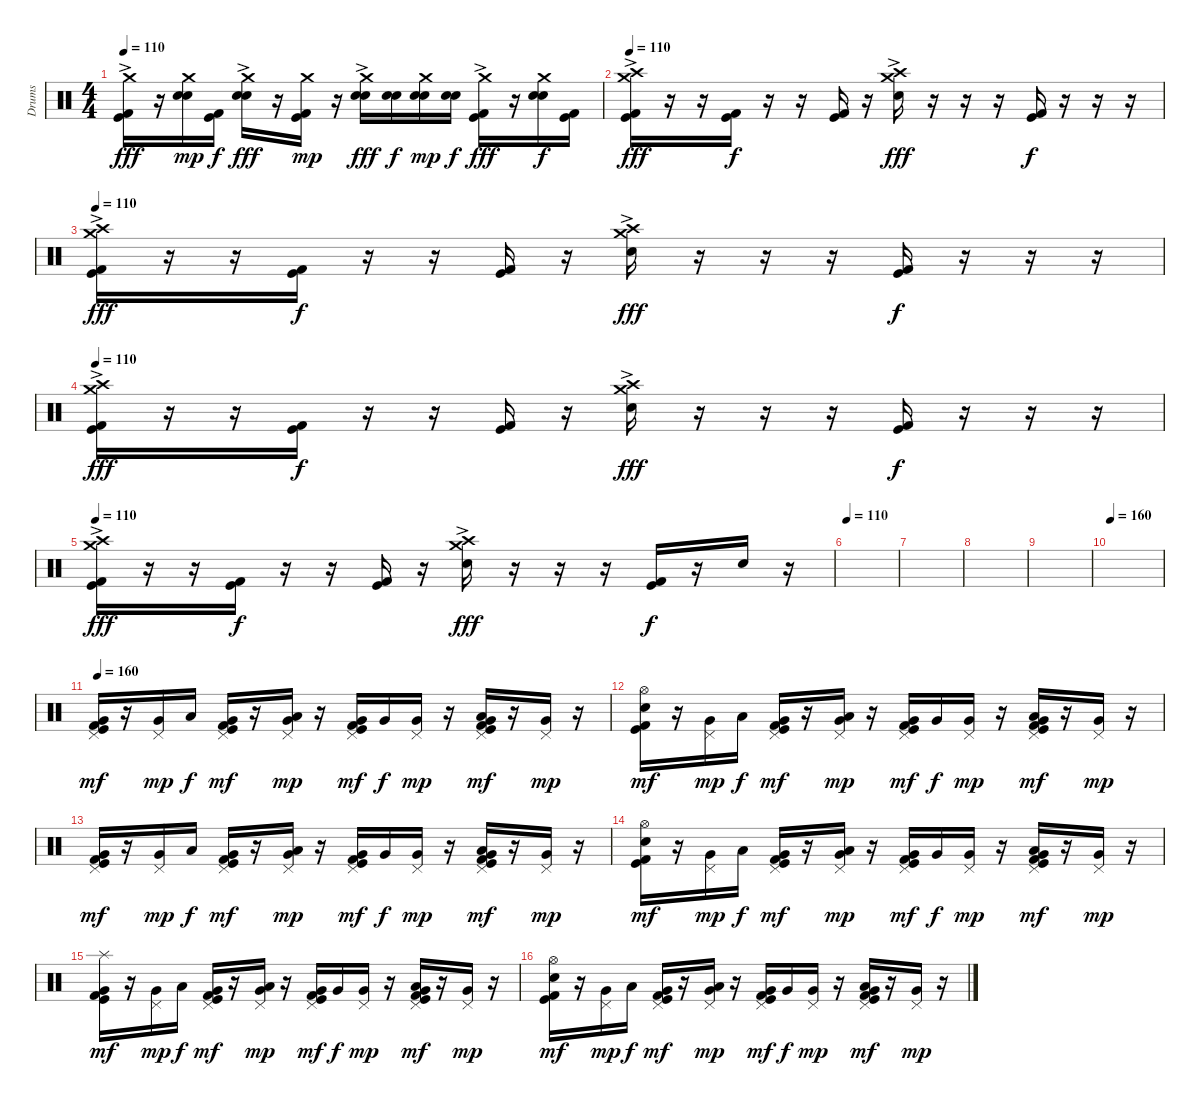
\track ("Drums" "Drums") {instrument percussion}
\staff {score}
\articulation defaults
\ts (4 4)
\tempo 110
\clef neutral
\ks c
("Crash medium (hit)"{ac} "Kick (hit)" "Kick (hit) 2").16{dy fff} r.16 ("Crash medium (hit)" "Electric Snare (hit)" "Electric Snare (hit)").16{dy mp} ("Kick (hit)" "Kick (hit) 2").16{dy f} ("Crash medium (hit)"{ac} "Electric Snare (hit)" "Electric Snare (hit)").16{dy fff} r.16 ("Crash medium (hit)" "Kick (hit)" "Kick (hit) 2").16{dy mp} r.16 ("Crash medium (hit)"{ac} "Electric Snare (hit)" "Electric Snare (hit)").16{dy fff} ("Electric Snare (hit)" "Electric Snare (hit)").16{dy f} ("Crash medium (hit)" "Electric Snare (hit)" "Electric Snare (hit)").16{dy mp} ("Electric Snare (hit)" "Electric Snare (hit)").16{dy f} ("Crash medium (hit)"{ac} "Kick (hit)" "Kick (hit) 2").16{dy fff} r.16 ("Crash medium (hit)" "Electric Snare (hit)" "Electric Snare (hit)").16{dy f} ("Kick (hit)" "Kick (hit) 2").16 |
\tempo 110
("Crash high (hit)" "Crash medium (hit)"{ac} "Kick (hit)" "Kick (hit) 2").16{dy fff} r.16 r.16 ("Kick (hit)" "Kick (hit) 2").16{dy f} r.16 r.16 ("Kick (hit)" "Kick (hit) 2").16 r.16 ("Crash high (hit)" "Crash medium (hit)"{ac} "Electric Snare (hit)").16{dy fff} r.16 r.16 r.16 ("Kick (hit)" "Kick (hit) 2").16{dy f} r.16 r.16 r.16 |
\tempo 110
("Crash high (hit)" "Crash medium (hit)"{ac} "Kick (hit)" "Kick (hit) 2").16{dy fff} r.16 r.16 ("Kick (hit)" "Kick (hit) 2").16{dy f} r.16 r.16 ("Kick (hit)" "Kick (hit) 2").16 r.16 ("Crash high (hit)" "Crash medium (hit)"{ac} "Electric Snare (hit)").16{dy fff} r.16 r.16 r.16 ("Kick (hit)" "Kick (hit) 2").16{dy f} r.16 r.16 r.16 |
\tempo 110
("Crash high (hit)" "Crash medium (hit)"{ac} "Kick (hit)" "Kick (hit) 2").16{dy fff} r.16 r.16 ("Kick (hit)" "Kick (hit) 2").16{dy f} r.16 r.16 ("Kick (hit)" "Kick (hit) 2").16 r.16 ("Crash high (hit)" "Crash medium (hit)"{ac} "Electric Snare (hit)").16{dy fff} r.16 r.16 r.16 ("Kick (hit)" "Kick (hit) 2").16{dy f} r.16 r.16 r.16 |
\tempo 110
("Crash high (hit)" "Crash medium (hit)"{ac} "Kick (hit)" "Kick (hit) 2").16{dy fff} r.16 r.16 ("Kick (hit)" "Kick (hit) 2").16{dy f} r.16 r.16 ("Kick (hit)" "Kick (hit) 2").16 r.16 ("Crash high (hit)" "Crash medium (hit)"{ac} "Electric Snare (hit)").16{dy fff} r.16 r.16 r.16 ("Kick (hit)" "Kick (hit) 2").16{dy f} r.16 "Electric Snare (hit)".16 r.16 |
\tempo 110
|
|
|
|
\tempo 160
|
\tempo 160
("Pedal Hi-Hat (hit)" "Very Low Tom (hit)" "Kick (hit)" "Kick (hit) 2").16{dy mf} r.16 ("Pedal Hi-Hat (hit)" "Very Low Tom (hit)").16{dy mp} "Low Tom (hit)".16{dy f} ("Pedal Hi-Hat (hit)" "Very Low Tom (hit)" "Kick (hit)" "Kick (hit) 2").16{dy mf} r.16 ("Pedal Hi-Hat (hit)" "Low Tom (hit)" "Very Low Tom (hit)").16{dy mp} r.16 ("Pedal Hi-Hat (hit)" "Very Low Tom (hit)" "Kick (hit)" "Kick (hit) 2").16{dy mf} "Very Low Tom (hit)".16{dy f} ("Pedal Hi-Hat (hit)" "Very Low Tom (hit)").16{dy mp} r.16 ("Pedal Hi-Hat (hit)" "Low Tom (hit)" "Very Low Tom (hit)" "Kick (hit)" "Kick (hit) 2").16{dy mf} r.16 ("Pedal Hi-Hat (hit)" "Very Low Tom (hit)").16{dy mp} r.16 |
("Hi-Hat (open)" "Electric Snare (hit)" "Kick (hit)" "Kick (hit) 2").16{dy mf} r.16 ("Pedal Hi-Hat (hit)" "Very Low Tom (hit)").16{dy mp} "Low Tom (hit)".16{dy f} ("Pedal Hi-Hat (hit)" "Very Low Tom (hit)" "Kick (hit)" "Kick (hit) 2").16{dy mf} r.16 ("Pedal Hi-Hat (hit)" "Low Tom (hit)" "Very Low Tom (hit)").16{dy mp} r.16 ("Pedal Hi-Hat (hit)" "Very Low Tom (hit)" "Kick (hit)" "Kick (hit) 2").16{dy mf} "Very Low Tom (hit)".16{dy f} ("Pedal Hi-Hat (hit)" "Very Low Tom (hit)").16{dy mp} r.16 ("Pedal Hi-Hat (hit)" "Low Tom (hit)" "Very Low Tom (hit)" "Kick (hit)" "Kick (hit) 2").16{dy mf} r.16 ("Pedal Hi-Hat (hit)" "Very Low Tom (hit)").16{dy mp} r.16 |
("Pedal Hi-Hat (hit)" "Very Low Tom (hit)" "Kick (hit)" "Kick (hit) 2").16{dy mf} r.16 ("Pedal Hi-Hat (hit)" "Very Low Tom (hit)").16{dy mp} "Low Tom (hit)".16{dy f} ("Pedal Hi-Hat (hit)" "Very Low Tom (hit)" "Kick (hit)" "Kick (hit) 2").16{dy mf} r.16 ("Pedal Hi-Hat (hit)" "Low Tom (hit)" "Very Low Tom (hit)").16{dy mp} r.16 ("Pedal Hi-Hat (hit)" "Very Low Tom (hit)" "Kick (hit)" "Kick (hit) 2").16{dy mf} "Very Low Tom (hit)".16{dy f} ("Pedal Hi-Hat (hit)" "Very Low Tom (hit)").16{dy mp} r.16 ("Pedal Hi-Hat (hit)" "Low Tom (hit)" "Very Low Tom (hit)" "Kick (hit)" "Kick (hit) 2").16{dy mf} r.16 ("Pedal Hi-Hat (hit)" "Very Low Tom (hit)").16{dy mp} r.16 |
("Hi-Hat (open)" "Electric Snare (hit)" "Kick (hit)" "Kick (hit) 2").16{dy mf} r.16 ("Pedal Hi-Hat (hit)" "Very Low Tom (hit)").16{dy mp} "Low Tom (hit)".16{dy f} ("Pedal Hi-Hat (hit)" "Very Low Tom (hit)" "Kick (hit)" "Kick (hit) 2").16{dy mf} r.16 ("Pedal Hi-Hat (hit)" "Low Tom (hit)" "Very Low Tom (hit)").16{dy mp} r.16 ("Pedal Hi-Hat (hit)" "Very Low Tom (hit)" "Kick (hit)" "Kick (hit) 2").16{dy mf} "Very Low Tom (hit)".16{dy f} ("Pedal Hi-Hat (hit)" "Very Low Tom (hit)").16{dy mp} r.16 ("Pedal Hi-Hat (hit)" "Low Tom (hit)" "Very Low Tom (hit)" "Kick (hit)" "Kick (hit) 2").16{dy mf} r.16 ("Pedal Hi-Hat (hit)" "Very Low Tom (hit)").16{dy mp} r.16 |
("Splash (hit)" "Very Low Tom (hit)" "Kick (hit)" "Kick (hit) 2").16{dy mf} r.16 ("Pedal Hi-Hat (hit)" "Very Low Tom (hit)").16{dy mp} "Low Tom (hit)".16{dy f} ("Pedal Hi-Hat (hit)" "Very Low Tom (hit)" "Kick (hit)" "Kick (hit) 2").16{dy mf} r.16 ("Pedal Hi-Hat (hit)" "Low Tom (hit)" "Very Low Tom (hit)").16{dy mp} r.16 ("Pedal Hi-Hat (hit)" "Very Low Tom (hit)" "Kick (hit)" "Kick (hit) 2").16{dy mf} "Very Low Tom (hit)".16{dy f} ("Pedal Hi-Hat (hit)" "Very Low Tom (hit)").16{dy mp} r.16 ("Pedal Hi-Hat (hit)" "Low Tom (hit)" "Very Low Tom (hit)" "Kick (hit)" "Kick (hit) 2").16{dy mf} r.16 ("Pedal Hi-Hat (hit)" "Very Low Tom (hit)").16{dy mp} r.16 |
("Hi-Hat (open)" "Electric Snare (hit)" "Kick (hit)" "Kick (hit) 2").16{dy mf} r.16 ("Pedal Hi-Hat (hit)" "Very Low Tom (hit)").16{dy mp} "Low Tom (hit)".16{dy f} ("Pedal Hi-Hat (hit)" "Very Low Tom (hit)" "Kick (hit)" "Kick (hit) 2").16{dy mf} r.16 ("Pedal Hi-Hat (hit)" "Low Tom (hit)" "Very Low Tom (hit)").16{dy mp} r.16 ("Pedal Hi-Hat (hit)" "Very Low Tom (hit)" "Kick (hit)" "Kick (hit) 2").16{dy mf} "Very Low Tom (hit)".16{dy f} ("Pedal Hi-Hat (hit)" "Very Low Tom (hit)").16{dy mp} r.16 ("Pedal Hi-Hat (hit)" "Low Tom (hit)" "Very Low Tom (hit)" "Kick (hit)" "Kick (hit) 2").16{dy mf} r.16 ("Pedal Hi-Hat (hit)" "Very Low Tom (hit)").16{dy mp} r.16
